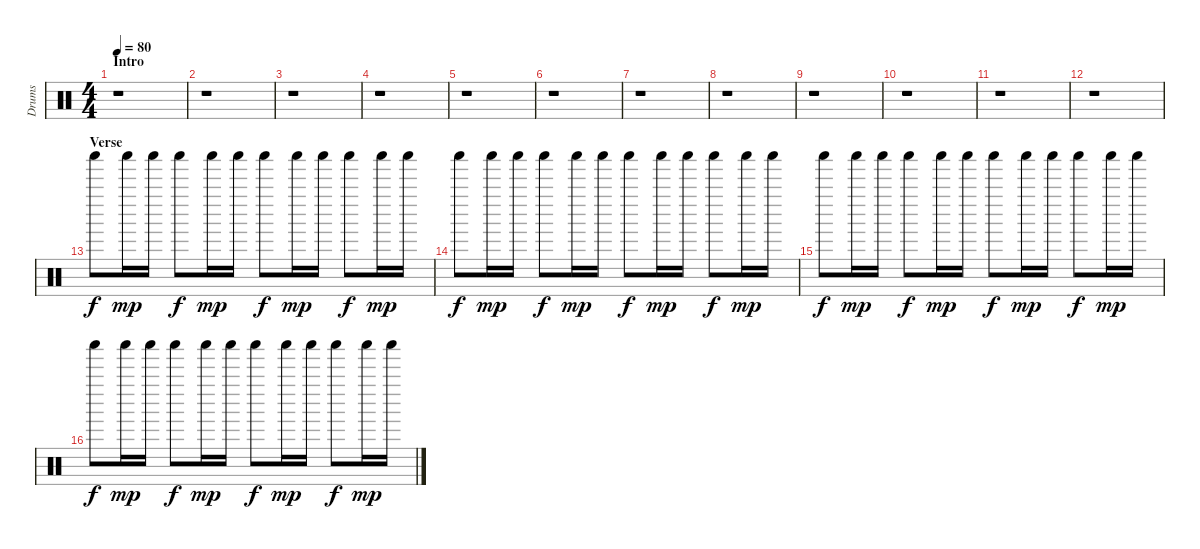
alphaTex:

\track ("Drums" "Drums") {instrument percussion}
\staff {score}
\articulation defaults
\ts (4 4)
\section ("" "Intro")
\tempo 80
\clef neutral
\ks c
r.1{dy f} |
r.1 |
r.1 |
r.1 |
r.1 |
r.1 |
r.1 |
r.1 |
r.1 |
r.1 |
r.1 |
r.1 |
\section ("" "Verse")
"Shaker (hit)".8 "Shaker (hit)".16{dy mp} "Shaker (hit)".16 "Shaker (hit)".8{dy f} "Shaker (hit)".16{dy mp} "Shaker (hit)".16 "Shaker (hit)".8{dy f} "Shaker (hit)".16{dy mp} "Shaker (hit)".16 "Shaker (hit)".8{dy f} "Shaker (hit)".16{dy mp} "Shaker (hit)".16 |
"Shaker (hit)".8{dy f} "Shaker (hit)".16{dy mp} "Shaker (hit)".16 "Shaker (hit)".8{dy f} "Shaker (hit)".16{dy mp} "Shaker (hit)".16 "Shaker (hit)".8{dy f} "Shaker (hit)".16{dy mp} "Shaker (hit)".16 "Shaker (hit)".8{dy f} "Shaker (hit)".16{dy mp} "Shaker (hit)".16 |
"Shaker (hit)".8{dy f} "Shaker (hit)".16{dy mp} "Shaker (hit)".16 "Shaker (hit)".8{dy f} "Shaker (hit)".16{dy mp} "Shaker (hit)".16 "Shaker (hit)".8{dy f} "Shaker (hit)".16{dy mp} "Shaker (hit)".16 "Shaker (hit)".8{dy f} "Shaker (hit)".16{dy mp} "Shaker (hit)".16 |
"Shaker (hit)".8{dy f} "Shaker (hit)".16{dy mp} "Shaker (hit)".16 "Shaker (hit)".8{dy f} "Shaker (hit)".16{dy mp} "Shaker (hit)".16 "Shaker (hit)".8{dy f} "Shaker (hit)".16{dy mp} "Shaker (hit)".16 "Shaker (hit)".8{dy f} "Shaker (hit)".16{dy mp} "Shaker (hit)".16
